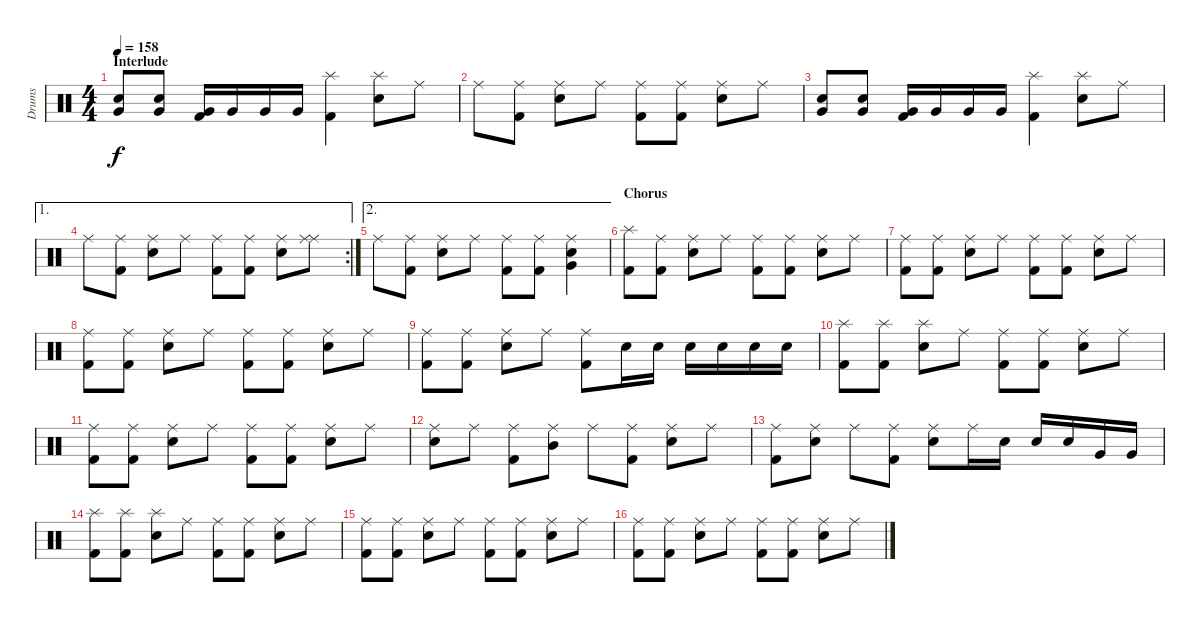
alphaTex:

\track ("Drums" "Drums") {instrument percussion}
\staff {score}
\articulation defaults
\ts (4 4)
\section ("" "Interlude")
\tempo 158
\clef neutral
\ks c
("Very Low Tom (hit)" "Electric Snare (hit)").8{dy f} ("Very Low Tom (hit)" "Electric Snare (hit)").8 ("Very Low Tom (hit)" "Kick (hit) 2").16 "Very Low Tom (hit)".16 "Very Low Tom (hit)".16 "Very Low Tom (hit)".16 ("Splash (hit)" "Kick (hit) 2").4 ("Splash (hit)" "Electric Snare (hit)").8 "Ride (middle)".8 |
"Ride (middle)".8 ("Ride (middle)" "Kick (hit) 2").8 ("Ride (middle)" "Electric Snare (hit)").8 "Ride (middle)".8 ("Ride (middle)" "Kick (hit) 2").8 ("Ride (middle)" "Kick (hit) 2").8 ("Ride (middle)" "Electric Snare (hit)").8 "Ride (middle)".8 |
("Very Low Tom (hit)" "Electric Snare (hit)").8 ("Very Low Tom (hit)" "Electric Snare (hit)").8 ("Very Low Tom (hit)" "Kick (hit) 2").16 "Very Low Tom (hit)".16 "Very Low Tom (hit)".16 "Very Low Tom (hit)".16 ("Splash (hit)" "Kick (hit) 2").4 ("Splash (hit)" "Electric Snare (hit)").8 "Ride (middle)".8 |
\ae 1
\rc 2 "Ride (middle)".8
("Ride (middle)" "Kick (hit) 2").8 ("Ride (middle)" "Electric Snare (hit)").8 "Ride (middle)".8 ("Ride (middle)" "Kick (hit) 2").8 ("Ride (middle)" "Kick (hit) 2").8 ("Ride (middle)" "Electric Snare (hit)").8 ("Ride (middle)" "Ride (middle)").8 |
\ae 2 "Ride (middle)".8
("Ride (middle)" "Kick (hit) 2").8 ("Ride (middle)" "Electric Snare (hit)").8 "Ride (middle)".8 ("Ride (middle)" "Kick (hit) 2").8 ("Ride (middle)" "Kick (hit) 2").8 ("Ride (middle)" "Very Low Tom (hit)" "Electric Snare (hit)").4 |
\section ("" "Chorus")
("Splash (hit)" "Kick (hit) 2").8 ("Ride (middle)" "Kick (hit) 2").8 ("Ride (middle)" "Electric Snare (hit)").8 "Ride (middle)".8 ("Ride (middle)" "Kick (hit) 2").8 ("Ride (middle)" "Kick (hit) 2").8 ("Ride (middle)" "Electric Snare (hit)").8 "Ride (middle)".8 |
("Ride (middle)" "Kick (hit) 2").8 ("Ride (middle)" "Kick (hit) 2").8 ("Ride (middle)" "Electric Snare (hit)").8 "Ride (middle)".8 ("Ride (middle)" "Kick (hit) 2").8 ("Ride (middle)" "Kick (hit) 2").8 ("Ride (middle)" "Electric Snare (hit)").8 "Ride (middle)".8 |
("Ride (middle)" "Kick (hit) 2").8 ("Ride (middle)" "Kick (hit) 2").8 ("Ride (middle)" "Electric Snare (hit)").8 "Ride (middle)".8 ("Ride (middle)" "Kick (hit) 2").8 ("Ride (middle)" "Kick (hit) 2").8 ("Ride (middle)" "Electric Snare (hit)").8 "Ride (middle)".8 |
("Ride (middle)" "Kick (hit) 2").8 ("Ride (middle)" "Kick (hit) 2").8 ("Ride (middle)" "Electric Snare (hit)").8 "Ride (middle)".8 ("Ride (middle)" "Kick (hit) 2").8 "Electric Snare (hit)".16 "Electric Snare (hit)".16 "Electric Snare (hit)".16 "Electric Snare (hit)".16 "Electric Snare (hit)".16 "Electric Snare (hit)".16 |
("Splash (hit)" "Kick (hit) 2").8 ("Splash (hit)" "Kick (hit) 2").8 ("Splash (hit)" "Electric Snare (hit)").8 "Ride (middle)".8 ("Ride (middle)" "Kick (hit) 2").8 ("Ride (middle)" "Kick (hit) 2").8 ("Ride (middle)" "Electric Snare (hit)").8 "Ride (middle)".8 |
("Ride (middle)" "Kick (hit) 2").8 ("Ride (middle)" "Kick (hit) 2").8 ("Ride (middle)" "Electric Snare (hit)").8 "Ride (middle)".8 ("Ride (middle)" "Kick (hit) 2").8 ("Ride (middle)" "Kick (hit) 2").8 ("Ride (middle)" "Electric Snare (hit)").8 "Ride (middle)".8 |
("Ride (middle)" "Electric Snare (hit)").8 "Ride (middle)".8 ("Ride (middle)" "Kick (hit) 2").8 ("Ride (middle)" "Mid Tom (hit)").8 "Ride (middle)".8 ("Ride (middle)" "Kick (hit) 2").8 ("Ride (middle)" "Electric Snare (hit)").8 "Ride (middle)".8 |
("Ride (middle)" "Kick (hit) 2").8 ("Ride (middle)" "Electric Snare (hit)").8 "Ride (middle)".8 ("Ride (middle)" "Kick (hit) 2").8 ("Ride (middle)" "Electric Snare (hit)").8 "Ride (middle)".16 "Electric Snare (hit)".16 "Electric Snare (hit)".16 "Electric Snare (hit)".16 "Very Low Tom (hit)".16 "Very Low Tom (hit)".16 |
("Splash (hit)" "Kick (hit) 2").8 ("Splash (hit)" "Kick (hit) 2").8 ("Splash (hit)" "Electric Snare (hit)").8 "Ride (middle)".8 ("Ride (middle)" "Kick (hit) 2").8 ("Ride (middle)" "Kick (hit) 2").8 ("Ride (middle)" "Electric Snare (hit)").8 "Ride (middle)".8 |
("Ride (middle)" "Kick (hit) 2").8 ("Ride (middle)" "Kick (hit) 2").8 ("Ride (middle)" "Electric Snare (hit)").8 "Ride (middle)".8 ("Ride (middle)" "Kick (hit) 2").8 ("Ride (middle)" "Kick (hit) 2").8 ("Ride (middle)" "Electric Snare (hit)").8 "Ride (middle)".8 |
("Ride (middle)" "Kick (hit) 2").8 ("Ride (middle)" "Kick (hit) 2").8 ("Ride (middle)" "Electric Snare (hit)").8 "Ride (middle)".8 ("Ride (middle)" "Kick (hit) 2").8 ("Ride (middle)" "Kick (hit) 2").8 ("Ride (middle)" "Electric Snare (hit)").8 "Ride (middle)".8
